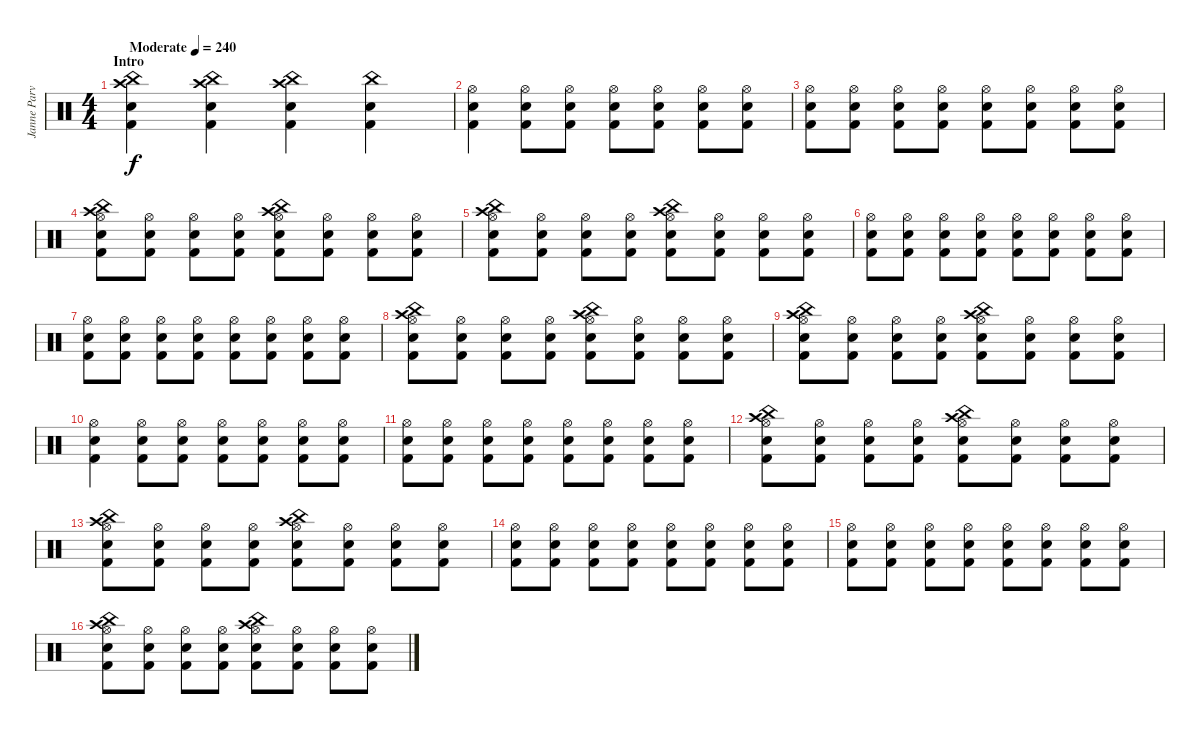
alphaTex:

\track ("Janne Parviainen" "Janne Parv") {instrument percussion}
\staff {score}
\articulation defaults
\ts (4 4)
\section ("" "Intro")
\tempo (240 "Moderate")
\clef neutral
\ks c
("Electric Snare (hit)" "Kick (hit) 2" "Crash high (hit)" "China (hit)").4{dy f} ("China (hit)" "Crash high (hit)" "Kick (hit) 2" "Electric Snare (hit)").4 ("Electric Snare (hit)" "Kick (hit) 2" "Crash high (hit)" "China (hit)").4 ("China (hit)" "Kick (hit) 2" "Electric Snare (hit)").4 |
("Electric Snare (hit)" "Kick (hit) 2" "Hi-Hat (open)").4 ("Hi-Hat (open)" "Kick (hit) 2" "Electric Snare (hit)").8 ("Electric Snare (hit)" "Kick (hit) 2" "Hi-Hat (open)").8 ("Hi-Hat (open)" "Kick (hit) 2" "Electric Snare (hit)").8 ("Electric Snare (hit)" "Kick (hit) 2" "Hi-Hat (open)").8 ("Hi-Hat (open)" "Kick (hit) 2" "Electric Snare (hit)").8 ("Electric Snare (hit)" "Kick (hit) 2" "Hi-Hat (open)").8 |
("Electric Snare (hit)" "Kick (hit) 2" "Hi-Hat (open)").8 ("Hi-Hat (open)" "Kick (hit) 2" "Electric Snare (hit)").8 ("Electric Snare (hit)" "Kick (hit) 2" "Hi-Hat (open)").8 ("Hi-Hat (open)" "Kick (hit) 2" "Electric Snare (hit)").8 ("Electric Snare (hit)" "Kick (hit) 2" "Hi-Hat (open)").8 ("Hi-Hat (open)" "Kick (hit) 2" "Electric Snare (hit)").8 ("Electric Snare (hit)" "Kick (hit) 2" "Hi-Hat (open)").8 ("Hi-Hat (open)" "Kick (hit) 2" "Electric Snare (hit)").8 |
("Electric Snare (hit)" "Kick (hit) 2" "Hi-Hat (open)" "China (hit)" "Crash high (hit)").8 ("Hi-Hat (open)" "Kick (hit) 2" "Electric Snare (hit)").8 ("Electric Snare (hit)" "Kick (hit) 2" "Hi-Hat (open)").8 ("Hi-Hat (open)" "Kick (hit) 2" "Electric Snare (hit)").8 ("Electric Snare (hit)" "Kick (hit) 2" "Hi-Hat (open)" "Crash high (hit)" "China (hit)").8 ("Hi-Hat (open)" "Kick (hit) 2" "Electric Snare (hit)").8 ("Electric Snare (hit)" "Kick (hit) 2" "Hi-Hat (open)").8 ("Hi-Hat (open)" "Kick (hit) 2" "Electric Snare (hit)").8 |
("Electric Snare (hit)" "Kick (hit) 2" "Hi-Hat (open)" "Crash high (hit)" "China (hit)").8 ("Hi-Hat (open)" "Kick (hit) 2" "Electric Snare (hit)").8 ("Electric Snare (hit)" "Kick (hit) 2" "Hi-Hat (open)").8 ("Hi-Hat (open)" "Kick (hit) 2" "Electric Snare (hit)").8 ("Electric Snare (hit)" "Kick (hit) 2" "Hi-Hat (open)" "China (hit)" "Crash high (hit)").8 ("Hi-Hat (open)" "Kick (hit) 2" "Electric Snare (hit)").8 ("Electric Snare (hit)" "Kick (hit) 2" "Hi-Hat (open)").8 ("Hi-Hat (open)" "Kick (hit) 2" "Electric Snare (hit)").8 |
("Electric Snare (hit)" "Kick (hit) 2" "Hi-Hat (open)").8 ("Hi-Hat (open)" "Kick (hit) 2" "Electric Snare (hit)").8 ("Electric Snare (hit)" "Kick (hit) 2" "Hi-Hat (open)").8 ("Hi-Hat (open)" "Kick (hit) 2" "Electric Snare (hit)").8 ("Electric Snare (hit)" "Kick (hit) 2" "Hi-Hat (open)").8 ("Hi-Hat (open)" "Kick (hit) 2" "Electric Snare (hit)").8 ("Electric Snare (hit)" "Kick (hit) 2" "Hi-Hat (open)").8 ("Hi-Hat (open)" "Kick (hit) 2" "Electric Snare (hit)").8 |
("Electric Snare (hit)" "Kick (hit) 2" "Hi-Hat (open)").8 ("Hi-Hat (open)" "Kick (hit) 2" "Electric Snare (hit)").8 ("Electric Snare (hit)" "Kick (hit) 2" "Hi-Hat (open)").8 ("Hi-Hat (open)" "Kick (hit) 2" "Electric Snare (hit)").8 ("Electric Snare (hit)" "Kick (hit) 2" "Hi-Hat (open)").8 ("Hi-Hat (open)" "Kick (hit) 2" "Electric Snare (hit)").8 ("Electric Snare (hit)" "Kick (hit) 2" "Hi-Hat (open)").8 ("Hi-Hat (open)" "Kick (hit) 2" "Electric Snare (hit)").8 |
("Electric Snare (hit)" "Kick (hit) 2" "Hi-Hat (open)" "Crash high (hit)" "China (hit)").8 ("Hi-Hat (open)" "Kick (hit) 2" "Electric Snare (hit)").8 ("Electric Snare (hit)" "Kick (hit) 2" "Hi-Hat (open)").8 ("Hi-Hat (open)" "Kick (hit) 2" "Electric Snare (hit)").8 ("Electric Snare (hit)" "Kick (hit) 2" "Hi-Hat (open)" "China (hit)" "Crash high (hit)").8 ("Hi-Hat (open)" "Kick (hit) 2" "Electric Snare (hit)").8 ("Electric Snare (hit)" "Kick (hit) 2" "Hi-Hat (open)").8 ("Hi-Hat (open)" "Kick (hit) 2" "Electric Snare (hit)").8 |
("Electric Snare (hit)" "Kick (hit) 2" "Hi-Hat (open)" "Crash high (hit)" "China (hit)").8 ("Hi-Hat (open)" "Kick (hit) 2" "Electric Snare (hit)").8 ("Electric Snare (hit)" "Kick (hit) 2" "Hi-Hat (open)").8 ("Hi-Hat (open)" "Kick (hit) 2" "Electric Snare (hit)").8 ("Electric Snare (hit)" "Kick (hit) 2" "Hi-Hat (open)" "China (hit)" "Crash high (hit)").8 ("Hi-Hat (open)" "Kick (hit) 2" "Electric Snare (hit)").8 ("Electric Snare (hit)" "Kick (hit) 2" "Hi-Hat (open)").8 ("Hi-Hat (open)" "Kick (hit) 2" "Electric Snare (hit)").8 |
("Electric Snare (hit)" "Kick (hit) 2" "Hi-Hat (open)").4 ("Hi-Hat (open)" "Kick (hit) 2" "Electric Snare (hit)").8 ("Electric Snare (hit)" "Kick (hit) 2" "Hi-Hat (open)").8 ("Hi-Hat (open)" "Kick (hit) 2" "Electric Snare (hit)").8 ("Electric Snare (hit)" "Kick (hit) 2" "Hi-Hat (open)").8 ("Hi-Hat (open)" "Kick (hit) 2" "Electric Snare (hit)").8 ("Electric Snare (hit)" "Kick (hit) 2" "Hi-Hat (open)").8 |
("Electric Snare (hit)" "Kick (hit) 2" "Hi-Hat (open)").8 ("Hi-Hat (open)" "Kick (hit) 2" "Electric Snare (hit)").8 ("Electric Snare (hit)" "Kick (hit) 2" "Hi-Hat (open)").8 ("Hi-Hat (open)" "Kick (hit) 2" "Electric Snare (hit)").8 ("Electric Snare (hit)" "Kick (hit) 2" "Hi-Hat (open)").8 ("Hi-Hat (open)" "Kick (hit) 2" "Electric Snare (hit)").8 ("Electric Snare (hit)" "Kick (hit) 2" "Hi-Hat (open)").8 ("Hi-Hat (open)" "Kick (hit) 2" "Electric Snare (hit)").8 |
("Electric Snare (hit)" "Kick (hit) 2" "Hi-Hat (open)" "China (hit)" "Crash high (hit)").8 ("Hi-Hat (open)" "Kick (hit) 2" "Electric Snare (hit)").8 ("Electric Snare (hit)" "Kick (hit) 2" "Hi-Hat (open)").8 ("Hi-Hat (open)" "Kick (hit) 2" "Electric Snare (hit)").8 ("Electric Snare (hit)" "Kick (hit) 2" "Hi-Hat (open)" "Crash high (hit)" "China (hit)").8 ("Hi-Hat (open)" "Kick (hit) 2" "Electric Snare (hit)").8 ("Electric Snare (hit)" "Kick (hit) 2" "Hi-Hat (open)").8 ("Hi-Hat (open)" "Kick (hit) 2" "Electric Snare (hit)").8 |
("Electric Snare (hit)" "Kick (hit) 2" "Hi-Hat (open)" "Crash high (hit)" "China (hit)").8 ("Hi-Hat (open)" "Kick (hit) 2" "Electric Snare (hit)").8 ("Electric Snare (hit)" "Kick (hit) 2" "Hi-Hat (open)").8 ("Hi-Hat (open)" "Kick (hit) 2" "Electric Snare (hit)").8 ("Electric Snare (hit)" "Kick (hit) 2" "Hi-Hat (open)" "China (hit)" "Crash high (hit)").8 ("Hi-Hat (open)" "Kick (hit) 2" "Electric Snare (hit)").8 ("Electric Snare (hit)" "Kick (hit) 2" "Hi-Hat (open)").8 ("Hi-Hat (open)" "Kick (hit) 2" "Electric Snare (hit)").8 |
("Electric Snare (hit)" "Kick (hit) 2" "Hi-Hat (open)").8 ("Hi-Hat (open)" "Kick (hit) 2" "Electric Snare (hit)").8 ("Electric Snare (hit)" "Kick (hit) 2" "Hi-Hat (open)").8 ("Hi-Hat (open)" "Kick (hit) 2" "Electric Snare (hit)").8 ("Electric Snare (hit)" "Kick (hit) 2" "Hi-Hat (open)").8 ("Hi-Hat (open)" "Kick (hit) 2" "Electric Snare (hit)").8 ("Electric Snare (hit)" "Kick (hit) 2" "Hi-Hat (open)").8 ("Hi-Hat (open)" "Kick (hit) 2" "Electric Snare (hit)").8 |
("Electric Snare (hit)" "Kick (hit) 2" "Hi-Hat (open)").8 ("Hi-Hat (open)" "Kick (hit) 2" "Electric Snare (hit)").8 ("Electric Snare (hit)" "Kick (hit) 2" "Hi-Hat (open)").8 ("Hi-Hat (open)" "Kick (hit) 2" "Electric Snare (hit)").8 ("Electric Snare (hit)" "Kick (hit) 2" "Hi-Hat (open)").8 ("Hi-Hat (open)" "Kick (hit) 2" "Electric Snare (hit)").8 ("Electric Snare (hit)" "Kick (hit) 2" "Hi-Hat (open)").8 ("Hi-Hat (open)" "Kick (hit) 2" "Electric Snare (hit)").8 |
("Electric Snare (hit)" "Kick (hit) 2" "Hi-Hat (open)" "Crash high (hit)" "China (hit)").8 ("Hi-Hat (open)" "Kick (hit) 2" "Electric Snare (hit)").8 ("Electric Snare (hit)" "Kick (hit) 2" "Hi-Hat (open)").8 ("Hi-Hat (open)" "Kick (hit) 2" "Electric Snare (hit)").8 ("Electric Snare (hit)" "Kick (hit) 2" "Hi-Hat (open)" "China (hit)" "Crash high (hit)").8 ("Hi-Hat (open)" "Kick (hit) 2" "Electric Snare (hit)").8 ("Electric Snare (hit)" "Kick (hit) 2" "Hi-Hat (open)").8 ("Hi-Hat (open)" "Kick (hit) 2" "Electric Snare (hit)").8
